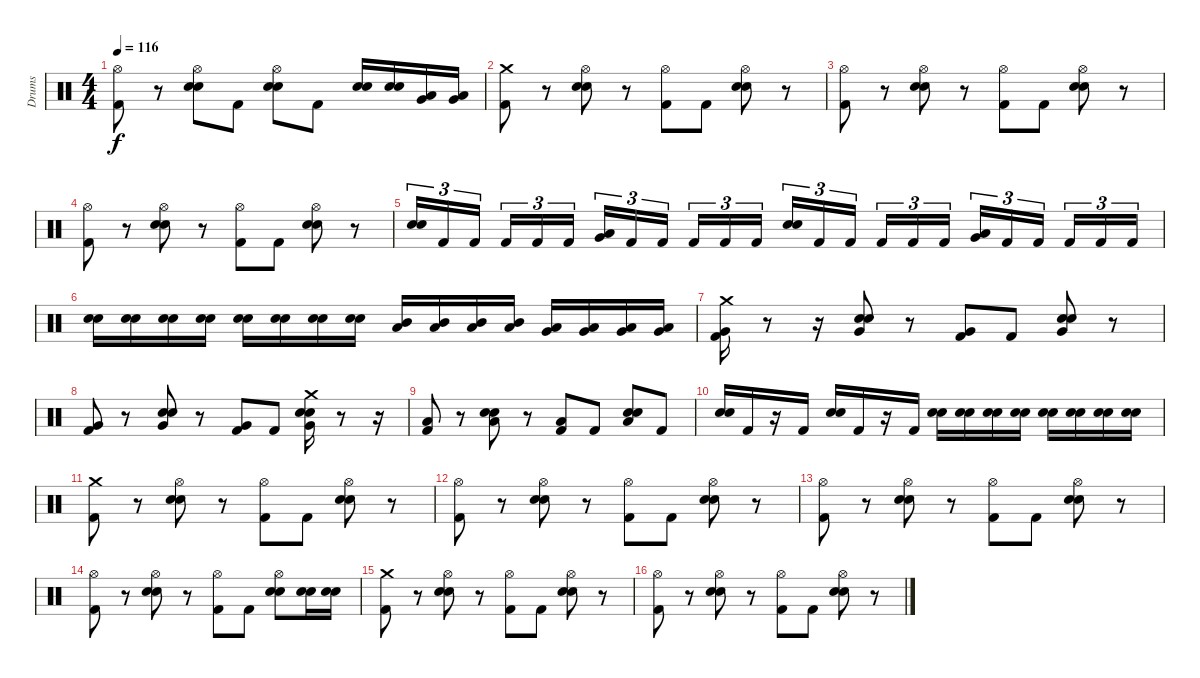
\track ("Drums" "Drums") {instrument percussion}
\staff {score}
\articulation defaults
\ts (4 4)
\tempo 116
\clef neutral
\ks c
("Hi-Hat (open)" "Kick (hit) 2").8{dy f} r.8 ("Hi-Hat (open)" "Snare (hit) 2" "Electric Snare (hit)").8 "Kick (hit) 2".8 ("Hi-Hat (open)" "Electric Snare (hit)" "Snare (hit) 2").8 "Kick (hit) 2".8 ("Electric Snare (hit)" "Snare (hit) 2").16 ("Electric Snare (hit)" "Snare (hit) 2").16 ("Very Low Tom (hit)" "Low Tom (hit)").16 ("Very Low Tom (hit)" "Low Tom (hit)").16 |
("Crash medium (hit)" "Kick (hit) 2").8 r.8 ("Hi-Hat (open)" "Snare (hit) 2" "Electric Snare (hit)").8 r.8 ("Kick (hit) 2" "Hi-Hat (open)").8 "Kick (hit) 2".8 ("Electric Snare (hit)" "Snare (hit) 2" "Hi-Hat (open)").8 r.8 |
("Hi-Hat (open)" "Kick (hit) 2").8 r.8 ("Hi-Hat (open)" "Snare (hit) 2" "Electric Snare (hit)").8 r.8 ("Kick (hit) 2" "Hi-Hat (open)").8 "Kick (hit) 2".8 ("Hi-Hat (open)" "Snare (hit) 2" "Electric Snare (hit)").8 r.8 |
("Hi-Hat (open)" "Kick (hit) 2").8 r.8 ("Hi-Hat (open)" "Snare (hit) 2" "Electric Snare (hit)").8 r.8 ("Kick (hit) 2" "Hi-Hat (open)").8 "Kick (hit) 2".8 ("Hi-Hat (open)" "Snare (hit) 2" "Electric Snare (hit)").8 r.8 |
("Snare (hit) 2" "Electric Snare (hit)").16{tu (3 2)} "Kick (hit) 2".16{tu (3 2)} "Kick (hit) 2".16{tu (3 2)} "Kick (hit) 2".16{tu (3 2)} "Kick (hit) 2".16{tu (3 2)} "Kick (hit) 2".16{tu (3 2)} ("Low Tom (hit)" "Very Low Tom (hit)").16{tu (3 2)} "Kick (hit) 2".16{tu (3 2)} "Kick (hit) 2".16{tu (3 2)} "Kick (hit) 2".16{tu (3 2)} "Kick (hit) 2".16{tu (3 2)} "Kick (hit) 2".16{tu (3 2)} ("Snare (hit) 2" "Electric Snare (hit)").16{tu (3 2)} "Kick (hit) 2".16{tu (3 2)} "Kick (hit) 2".16{tu (3 2)} "Kick (hit) 2".16{tu (3 2)} "Kick (hit) 2".16{tu (3 2)} "Kick (hit) 2".16{tu (3 2)} ("Low Floor Tom (hit)" "Very Low Tom (hit)").16{tu (3 2)} "Kick (hit) 2".16{tu (3 2)} "Kick (hit) 2".16{tu (3 2)} "Kick (hit) 2".16{tu (3 2)} "Kick (hit) 2".16{tu (3 2)} "Kick (hit) 2".16{tu (3 2)} |
("Snare (hit) 2" "Electric Snare (hit)").16 ("Snare (hit) 2" "Electric Snare (hit)").16 ("Snare (hit) 2" "Electric Snare (hit)").16 ("Snare (hit) 2" "Electric Snare (hit)").16 ("Snare (hit) 2" "Electric Snare (hit)").16 ("Snare (hit) 2" "Electric Snare (hit)").16 ("Snare (hit) 2" "Electric Snare (hit)").16 ("Snare (hit) 2" "Electric Snare (hit)").16 ("Low Tom (hit)" "Mid Tom (hit)").16 ("Low Tom (hit)" "Mid Tom (hit)").16 ("Low Tom (hit)" "Mid Tom (hit)").16 ("Low Tom (hit)" "Mid Tom (hit)").16 ("Very Low Tom (hit)" "Low Tom (hit)").16 ("Very Low Tom (hit)" "Low Tom (hit)").16 ("Very Low Tom (hit)" "Low Tom (hit)").16 ("Very Low Tom (hit)" "Low Tom (hit)").16 |
("Very Low Tom (hit)" "Crash medium (hit)" "Kick (hit) 2").16 r.8 r.16 ("Very Low Tom (hit)" "Electric Snare (hit)" "Snare (hit) 2").8 r.8 ("Very Low Tom (hit)" "Kick (hit) 2").8 "Kick (hit) 2".8 ("Very Low Tom (hit)" "Snare (hit) 2" "Electric Snare (hit)").8 r.8 |
("Very Low Tom (hit)" "Kick (hit) 2").8 r.8 ("Very Low Tom (hit)" "Electric Snare (hit)" "Snare (hit) 2").8 r.8 ("Very Low Tom (hit)" "Kick (hit) 2").8 "Kick (hit) 2".8 ("Very Low Tom (hit)" "Crash medium (hit)" "Electric Snare (hit)" "Snare (hit) 2").16 r.8 r.16 |
("Low Tom (hit)" "Kick (hit) 2").8 r.8 ("Low Tom (hit)" "Electric Snare (hit)" "Snare (hit) 2").8 r.8 ("Low Tom (hit)" "Kick (hit) 2").8 "Kick (hit) 2".8 ("Low Tom (hit)" "Electric Snare (hit)" "Snare (hit) 2").8 "Kick (hit) 2".8 |
("Snare (hit) 2" "Electric Snare (hit)").16 "Kick (hit) 2".16 r.16 "Kick (hit) 2".16 ("Electric Snare (hit)" "Snare (hit) 2").16 "Kick (hit) 2".16 r.16 "Kick (hit) 2".16 ("Electric Snare (hit)" "Snare (hit) 2").16 ("Electric Snare (hit)" "Snare (hit) 2").16 ("Electric Snare (hit)" "Snare (hit) 2").16 ("Electric Snare (hit)" "Snare (hit) 2").16 ("Electric Snare (hit)" "Snare (hit) 2").16 ("Electric Snare (hit)" "Snare (hit) 2").16 ("Electric Snare (hit)" "Snare (hit) 2").16 ("Electric Snare (hit)" "Snare (hit) 2").16 |
("Kick (hit) 2" "Crash medium (hit)").8 r.8 ("Hi-Hat (open)" "Snare (hit) 2" "Electric Snare (hit)").8 r.8 ("Hi-Hat (open)" "Kick (hit) 2").8 "Kick (hit) 2".8 ("Hi-Hat (open)" "Snare (hit) 2" "Electric Snare (hit)").8 r.8 |
("Kick (hit) 2" "Hi-Hat (open)").8 r.8 ("Hi-Hat (open)" "Snare (hit) 2" "Electric Snare (hit)").8 r.8 ("Hi-Hat (open)" "Kick (hit) 2").8 "Kick (hit) 2".8 ("Hi-Hat (open)" "Snare (hit) 2" "Electric Snare (hit)").8 r.8 |
("Kick (hit) 2" "Hi-Hat (open)").8 r.8 ("Hi-Hat (open)" "Snare (hit) 2" "Electric Snare (hit)").8 r.8 ("Hi-Hat (open)" "Kick (hit) 2").8 "Kick (hit) 2".8 ("Hi-Hat (open)" "Snare (hit) 2" "Electric Snare (hit)").8 r.8 |
("Kick (hit) 2" "Hi-Hat (open)").8 r.8 ("Hi-Hat (open)" "Snare (hit) 2" "Electric Snare (hit)").8 r.8 ("Hi-Hat (open)" "Kick (hit) 2").8 "Kick (hit) 2".8 ("Hi-Hat (open)" "Snare (hit) 2" "Electric Snare (hit)").8 ("Electric Snare (hit)" "Snare (hit) 2").16 ("Electric Snare (hit)" "Snare (hit) 2").16 |
("Kick (hit) 2" "Crash medium (hit)").8 r.8 ("Hi-Hat (open)" "Snare (hit) 2" "Electric Snare (hit)").8 r.8 ("Hi-Hat (open)" "Kick (hit) 2").8 "Kick (hit) 2".8 ("Hi-Hat (open)" "Snare (hit) 2" "Electric Snare (hit)").8 r.8 |
("Kick (hit) 2" "Hi-Hat (open)").8 r.8 ("Hi-Hat (open)" "Snare (hit) 2" "Electric Snare (hit)").8 r.8 ("Hi-Hat (open)" "Kick (hit) 2").8 "Kick (hit) 2".8 ("Hi-Hat (open)" "Snare (hit) 2" "Electric Snare (hit)").8 r.8
